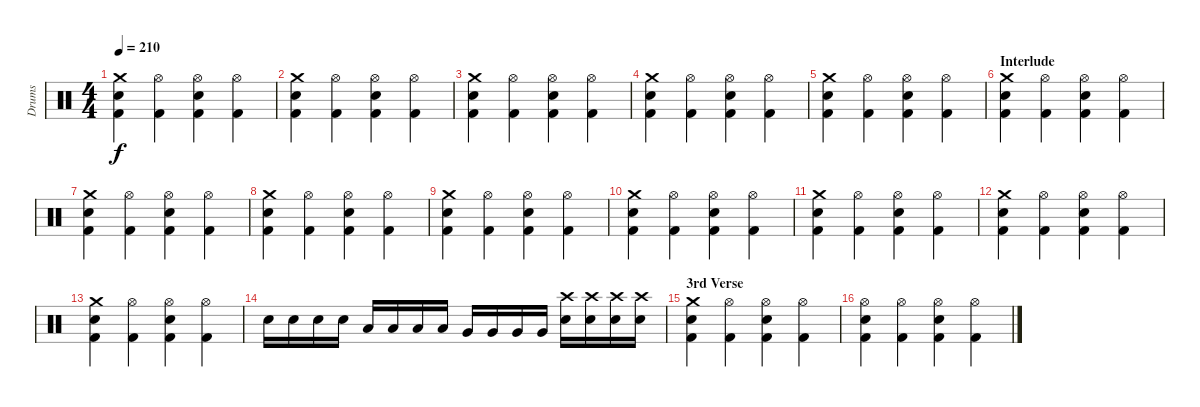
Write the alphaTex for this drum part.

\track ("Drums" "Drums") {instrument percussion}
\staff {score}
\articulation defaults
\ts (4 4)
\tempo 210
\clef neutral
\ks c
("Crash medium (hit)" "Electric Snare (hit)" "Kick (hit) 2").4{dy f} ("Hi-Hat (open)" "Kick (hit) 2").4 ("Hi-Hat (open)" "Electric Snare (hit)" "Kick (hit) 2").4 ("Hi-Hat (open)" "Kick (hit) 2").4 |
("Crash medium (hit)" "Electric Snare (hit)" "Kick (hit) 2").4 ("Hi-Hat (open)" "Kick (hit) 2").4 ("Hi-Hat (open)" "Electric Snare (hit)" "Kick (hit) 2").4 ("Hi-Hat (open)" "Kick (hit) 2").4 |
("Crash medium (hit)" "Electric Snare (hit)" "Kick (hit) 2").4 ("Hi-Hat (open)" "Kick (hit) 2").4 ("Hi-Hat (open)" "Electric Snare (hit)" "Kick (hit) 2").4 ("Hi-Hat (open)" "Kick (hit) 2").4 |
("Crash medium (hit)" "Electric Snare (hit)" "Kick (hit) 2").4 ("Hi-Hat (open)" "Kick (hit) 2").4 ("Hi-Hat (open)" "Electric Snare (hit)" "Kick (hit) 2").4 ("Hi-Hat (open)" "Kick (hit) 2").4 |
("Crash medium (hit)" "Electric Snare (hit)" "Kick (hit) 2").4 ("Hi-Hat (open)" "Kick (hit) 2").4 ("Hi-Hat (open)" "Electric Snare (hit)" "Kick (hit) 2").4 ("Hi-Hat (open)" "Kick (hit) 2").4 |
\section ("" "Interlude")
("Crash medium (hit)" "Electric Snare (hit)" "Kick (hit) 2").4 ("Hi-Hat (open)" "Kick (hit) 2").4 ("Hi-Hat (open)" "Electric Snare (hit)" "Kick (hit) 2").4 ("Hi-Hat (open)" "Kick (hit) 2").4 |
("Crash medium (hit)" "Electric Snare (hit)" "Kick (hit) 2").4 ("Hi-Hat (open)" "Kick (hit) 2").4 ("Hi-Hat (open)" "Electric Snare (hit)" "Kick (hit) 2").4 ("Hi-Hat (open)" "Kick (hit) 2").4 |
("Crash medium (hit)" "Electric Snare (hit)" "Kick (hit) 2").4 ("Hi-Hat (open)" "Kick (hit) 2").4 ("Hi-Hat (open)" "Electric Snare (hit)" "Kick (hit) 2").4 ("Hi-Hat (open)" "Kick (hit) 2").4 |
("Crash medium (hit)" "Electric Snare (hit)" "Kick (hit) 2").4 ("Hi-Hat (open)" "Kick (hit) 2").4 ("Hi-Hat (open)" "Electric Snare (hit)" "Kick (hit) 2").4 ("Hi-Hat (open)" "Kick (hit) 2").4 |
("Crash medium (hit)" "Electric Snare (hit)" "Kick (hit) 2").4 ("Hi-Hat (open)" "Kick (hit) 2").4 ("Hi-Hat (open)" "Electric Snare (hit)" "Kick (hit) 2").4 ("Hi-Hat (open)" "Kick (hit) 2").4 |
("Crash medium (hit)" "Electric Snare (hit)" "Kick (hit) 2").4 ("Hi-Hat (open)" "Kick (hit) 2").4 ("Hi-Hat (open)" "Electric Snare (hit)" "Kick (hit) 2").4 ("Hi-Hat (open)" "Kick (hit) 2").4 |
("Crash medium (hit)" "Electric Snare (hit)" "Kick (hit) 2").4 ("Hi-Hat (open)" "Kick (hit) 2").4 ("Hi-Hat (open)" "Electric Snare (hit)" "Kick (hit) 2").4 ("Hi-Hat (open)" "Kick (hit) 2").4 |
("Crash medium (hit)" "Electric Snare (hit)" "Kick (hit) 2").4 ("Hi-Hat (open)" "Kick (hit) 2").4 ("Hi-Hat (open)" "Electric Snare (hit)" "Kick (hit) 2").4 ("Hi-Hat (open)" "Kick (hit) 2").4 |
"Electric Snare (hit)".16 "Electric Snare (hit)".16 "Electric Snare (hit)".16 "Electric Snare (hit)".16 "Low Tom (hit)".16 "Low Tom (hit)".16 "Low Tom (hit)".16 "Low Tom (hit)".16 "Very Low Tom (hit)".16 "Very Low Tom (hit)".16 "Very Low Tom (hit)".16 "Very Low Tom (hit)".16 ("Electric Snare (hit)" "Crash high (hit)").16 ("Electric Snare (hit)" "Crash high (hit)").16 ("Electric Snare (hit)" "Crash high (hit)").16 ("Electric Snare (hit)" "Crash high (hit)").16 |
\section ("" "3rd Verse")
("Crash medium (hit)" "Electric Snare (hit)" "Kick (hit) 2").4 ("Hi-Hat (open)" "Kick (hit) 2").4 ("Hi-Hat (open)" "Electric Snare (hit)" "Kick (hit) 2").4 ("Hi-Hat (open)" "Kick (hit) 2").4 |
("Hi-Hat (open)" "Electric Snare (hit)" "Kick (hit) 2").4 ("Hi-Hat (open)" "Kick (hit) 2").4 ("Hi-Hat (open)" "Electric Snare (hit)" "Kick (hit) 2").4 ("Hi-Hat (open)" "Kick (hit) 2").4
